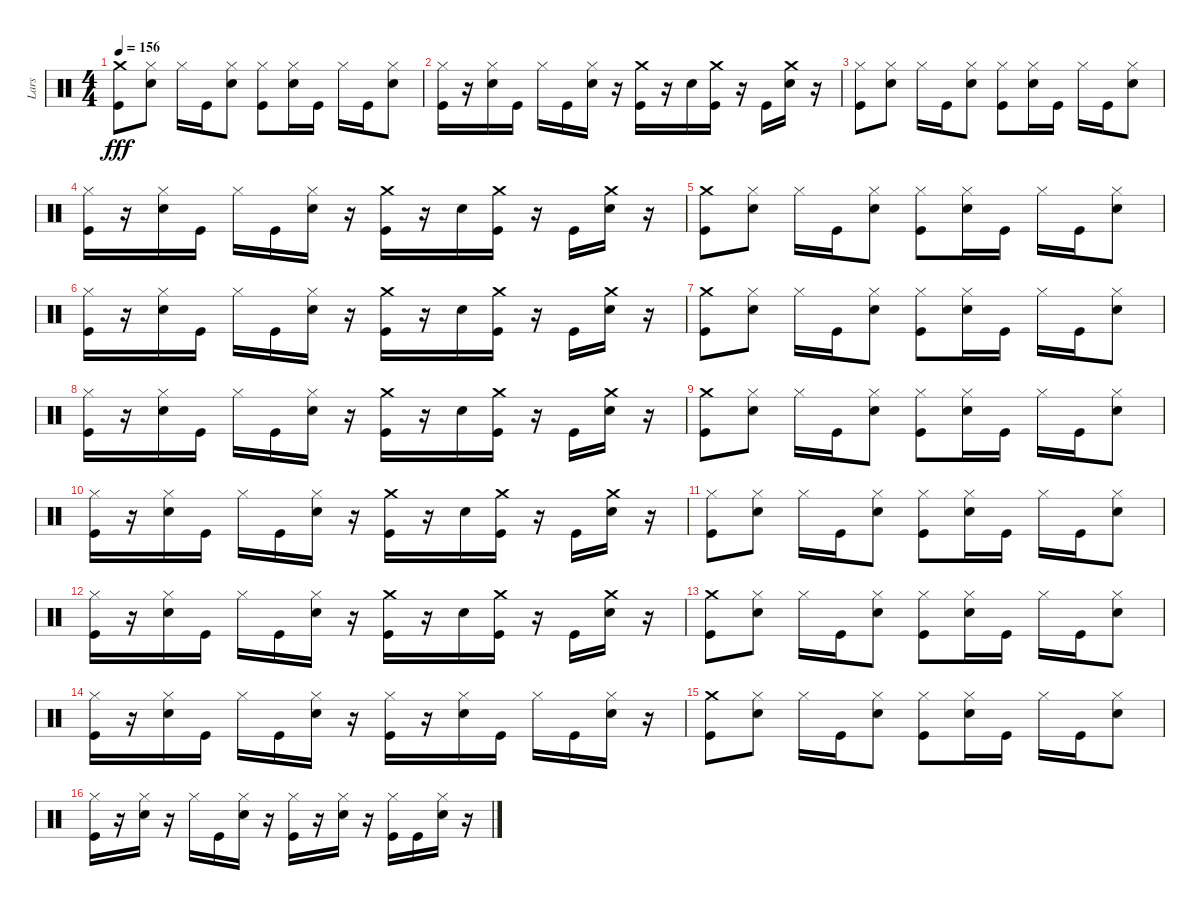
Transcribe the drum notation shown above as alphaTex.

\track ("Lars" "Lars") {instrument percussion bank 102}
\staff {score}
\articulation defaults
\ts (4 4)
\tempo 156
\clef neutral
\ks c
("Crash medium (hit)" "Kick (hit)").8{dy fff} ("Hi-Hat (closed)" "Snare (hit) 2").8 "Hi-Hat (closed)".16 "Kick (hit)".16 ("Snare (hit) 2" "Hi-Hat (closed)").8 ("Kick (hit)" "Hi-Hat (closed)").8 ("Snare (hit) 2" "Hi-Hat (closed)").16 "Kick (hit)".16 "Hi-Hat (closed)".16 "Kick (hit)".16 ("Snare (hit) 2" "Hi-Hat (closed)").8 |
("Hi-Hat (closed)" "Kick (hit)").16 r.16 ("Hi-Hat (closed)" "Snare (hit) 2").16 "Kick (hit)".16 "Hi-Hat (closed)".16 "Kick (hit)".16 ("Hi-Hat (closed)" "Snare (hit) 2").16 r.16 ("Crash medium (hit)" "Kick (hit)").16 r.16 "Snare (hit) 2".16 ("Crash medium (hit)" "Kick (hit)").16 r.16 "Kick (hit)".16 ("Crash medium (hit)" "Snare (hit) 2").16 r.16 |
("Hi-Hat (closed)" "Kick (hit)").8 ("Snare (hit) 2" "Hi-Hat (closed)").8 "Hi-Hat (closed)".16 "Kick (hit)".16 ("Snare (hit) 2" "Hi-Hat (closed)").8 ("Kick (hit)" "Hi-Hat (closed)").8 ("Snare (hit) 2" "Hi-Hat (closed)").16 "Kick (hit)".16 "Hi-Hat (closed)".16 "Kick (hit)".16 ("Snare (hit) 2" "Hi-Hat (closed)").8 |
("Hi-Hat (closed)" "Kick (hit)").16 r.16 ("Hi-Hat (closed)" "Snare (hit) 2").16 "Kick (hit)".16 "Hi-Hat (closed)".16 "Kick (hit)".16 ("Hi-Hat (closed)" "Snare (hit) 2").16 r.16 ("Crash medium (hit)" "Kick (hit)").16 r.16 "Snare (hit) 2".16 ("Crash medium (hit)" "Kick (hit)").16 r.16 "Kick (hit)".16 ("Crash medium (hit)" "Snare (hit) 2").16 r.16 |
("Crash medium (hit)" "Kick (hit)").8 ("Snare (hit) 2" "Hi-Hat (closed)").8 "Hi-Hat (closed)".16 "Kick (hit)".16 ("Snare (hit) 2" "Hi-Hat (closed)").8 ("Kick (hit)" "Hi-Hat (closed)").8 ("Snare (hit) 2" "Hi-Hat (closed)").16 "Kick (hit)".16 "Hi-Hat (closed)".16 "Kick (hit)".16 ("Snare (hit) 2" "Hi-Hat (closed)").8 |
("Hi-Hat (closed)" "Kick (hit)").16 r.16 ("Hi-Hat (closed)" "Snare (hit) 2").16 "Kick (hit)".16 "Hi-Hat (closed)".16 "Kick (hit)".16 ("Hi-Hat (closed)" "Snare (hit) 2").16 r.16 ("Crash medium (hit)" "Kick (hit)").16 r.16 "Snare (hit) 2".16 ("Crash medium (hit)" "Kick (hit)").16 r.16 "Kick (hit)".16 ("Crash medium (hit)" "Snare (hit) 2").16 r.16 |
("Crash medium (hit)" "Kick (hit)").8 ("Snare (hit) 2" "Hi-Hat (closed)").8 "Hi-Hat (closed)".16 "Kick (hit)".16 ("Snare (hit) 2" "Hi-Hat (closed)").8 ("Kick (hit)" "Hi-Hat (closed)").8 ("Snare (hit) 2" "Hi-Hat (closed)").16 "Kick (hit)".16 "Hi-Hat (closed)".16 "Kick (hit)".16 ("Snare (hit) 2" "Hi-Hat (closed)").8 |
("Hi-Hat (closed)" "Kick (hit)").16 r.16 ("Hi-Hat (closed)" "Snare (hit) 2").16 "Kick (hit)".16 "Hi-Hat (closed)".16 "Kick (hit)".16 ("Hi-Hat (closed)" "Snare (hit) 2").16 r.16 ("Crash medium (hit)" "Kick (hit)").16 r.16 "Snare (hit) 2".16 ("Crash medium (hit)" "Kick (hit)").16 r.16 "Kick (hit)".16 ("Crash medium (hit)" "Snare (hit) 2").16 r.16 |
("Crash medium (hit)" "Kick (hit)").8 ("Snare (hit) 2" "Hi-Hat (closed)").8 "Hi-Hat (closed)".16 "Kick (hit)".16 ("Snare (hit) 2" "Hi-Hat (closed)").8 ("Kick (hit)" "Hi-Hat (closed)").8 ("Snare (hit) 2" "Hi-Hat (closed)").16 "Kick (hit)".16 "Hi-Hat (closed)".16 "Kick (hit)".16 ("Snare (hit) 2" "Hi-Hat (closed)").8 |
("Hi-Hat (closed)" "Kick (hit)").16 r.16 ("Hi-Hat (closed)" "Snare (hit) 2").16 "Kick (hit)".16 "Hi-Hat (closed)".16 "Kick (hit)".16 ("Hi-Hat (closed)" "Snare (hit) 2").16 r.16 ("Crash medium (hit)" "Kick (hit)").16 r.16 "Snare (hit) 2".16 ("Crash medium (hit)" "Kick (hit)").16 r.16 "Kick (hit)".16 ("Crash medium (hit)" "Snare (hit) 2").16 r.16 |
("Hi-Hat (closed)" "Kick (hit)").8 ("Snare (hit) 2" "Hi-Hat (closed)").8 "Hi-Hat (closed)".16 "Kick (hit)".16 ("Snare (hit) 2" "Hi-Hat (closed)").8 ("Kick (hit)" "Hi-Hat (closed)").8 ("Snare (hit) 2" "Hi-Hat (closed)").16 "Kick (hit)".16 "Hi-Hat (closed)".16 "Kick (hit)".16 ("Snare (hit) 2" "Hi-Hat (closed)").8 |
("Hi-Hat (closed)" "Kick (hit)").16 r.16 ("Hi-Hat (closed)" "Snare (hit) 2").16 "Kick (hit)".16 "Hi-Hat (closed)".16 "Kick (hit)".16 ("Hi-Hat (closed)" "Snare (hit) 2").16 r.16 ("Crash medium (hit)" "Kick (hit)").16 r.16 "Snare (hit) 2".16 ("Crash medium (hit)" "Kick (hit)").16 r.16 "Kick (hit)".16 ("Crash medium (hit)" "Snare (hit) 2").16 r.16 |
("Crash medium (hit)" "Kick (hit)").8 ("Snare (hit) 2" "Hi-Hat (closed)").8 "Hi-Hat (closed)".16 "Kick (hit)".16 ("Snare (hit) 2" "Hi-Hat (closed)").8 ("Kick (hit)" "Hi-Hat (closed)").8 ("Snare (hit) 2" "Hi-Hat (closed)").16 "Kick (hit)".16 "Hi-Hat (closed)".16 "Kick (hit)".16 ("Snare (hit) 2" "Hi-Hat (closed)").8 |
("Hi-Hat (closed)" "Kick (hit)").16 r.16 ("Hi-Hat (closed)" "Snare (hit) 2").16 "Kick (hit)".16 "Hi-Hat (closed)".16 "Kick (hit)".16 ("Hi-Hat (closed)" "Snare (hit) 2").16 r.16 ("Hi-Hat (closed)" "Kick (hit)").16 r.16 ("Hi-Hat (closed)" "Snare (hit) 2").16 "Kick (hit)".16 "Hi-Hat (closed)".16 "Kick (hit)".16 ("Hi-Hat (closed)" "Snare (hit) 2").16 r.16 |
("Crash medium (hit)" "Kick (hit)").8 ("Snare (hit) 2" "Hi-Hat (closed)").8 "Hi-Hat (closed)".16 "Kick (hit)".16 ("Snare (hit) 2" "Hi-Hat (closed)").8 ("Kick (hit)" "Hi-Hat (closed)").8 ("Snare (hit) 2" "Hi-Hat (closed)").16 "Kick (hit)".16 "Hi-Hat (closed)".16 "Kick (hit)".16 ("Snare (hit) 2" "Hi-Hat (closed)").8 |
("Hi-Hat (closed)" "Kick (hit)").16 r.16 ("Hi-Hat (closed)" "Snare (hit) 2").16 r.16 "Hi-Hat (closed)".16 "Kick (hit)".16 ("Hi-Hat (closed)" "Snare (hit) 2").16 r.16 ("Hi-Hat (closed)" "Kick (hit)").16 r.16 ("Hi-Hat (closed)" "Snare (hit) 2").16 r.16 ("Kick (hit)" "Hi-Hat (closed)").16 "Kick (hit)".16 ("Snare (hit) 2" "Hi-Hat (closed)").16 r.16
